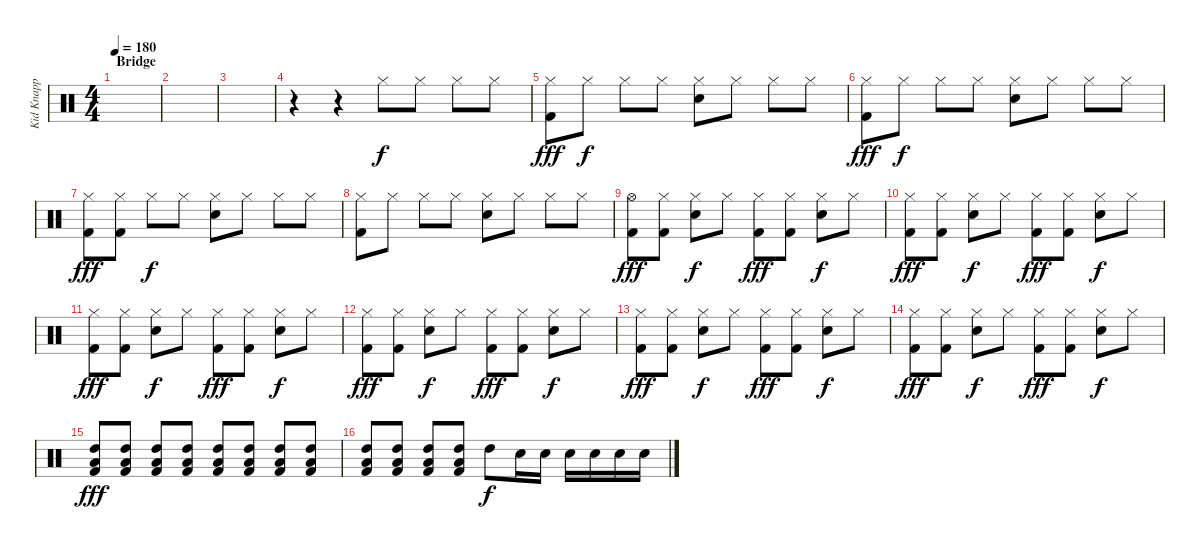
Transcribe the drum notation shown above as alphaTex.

\track ("Kid Knapp (Drums)" "Kid Knapp ") {instrument percussion}
\staff {score}
\articulation defaults
\ts (4 4)
\section ("" "Bridge")
\tempo 180
\clef neutral
\ks c
|
|
|
r.4 r.4 "Hi-Hat (closed)".8 "Hi-Hat (closed)".8 "Hi-Hat (closed)".8 "Hi-Hat (closed)".8 |
("Hi-Hat (closed)" "Kick (hit) 2").8{dy fff} "Hi-Hat (closed)".8{dy f} "Hi-Hat (closed)".8 "Hi-Hat (closed)".8 ("Hi-Hat (closed)" "Snare (hit) 2").8 "Hi-Hat (closed)".8 "Hi-Hat (closed)".8 "Hi-Hat (closed)".8 |
("Hi-Hat (closed)" "Kick (hit) 2").8{dy fff} "Hi-Hat (closed)".8{dy f} "Hi-Hat (closed)".8 "Hi-Hat (closed)".8 ("Hi-Hat (closed)" "Snare (hit) 2").8 "Hi-Hat (closed)".8 "Hi-Hat (closed)".8 "Hi-Hat (closed)".8 |
("Hi-Hat (closed)" "Kick (hit) 2").8{dy fff} ("Hi-Hat (closed)" "Kick (hit) 2").8 "Hi-Hat (closed)".8{dy f} "Hi-Hat (closed)".8 ("Hi-Hat (closed)" "Snare (hit) 2").8 "Hi-Hat (closed)".8 "Hi-Hat (closed)".8 "Hi-Hat (closed)".8 |
("Hi-Hat (closed)" "Kick (hit) 2").8 "Hi-Hat (closed)".8 "Hi-Hat (closed)".8 "Hi-Hat (closed)".8 ("Hi-Hat (closed)" "Snare (hit) 2").8 "Hi-Hat (closed)".8 "Hi-Hat (closed)".8 "Hi-Hat (closed)".8 |
("Hi-Hat (open)" "Kick (hit) 2").8{dy fff} ("Hi-Hat (closed)" "Kick (hit) 2").8 ("Hi-Hat (closed)" "Snare (hit) 2").8{dy f} "Hi-Hat (closed)".8 ("Hi-Hat (closed)" "Kick (hit) 2").8{dy fff} ("Hi-Hat (closed)" "Kick (hit) 2").8 ("Hi-Hat (closed)" "Snare (hit) 2").8{dy f} "Hi-Hat (closed)".8 |
("Hi-Hat (closed)" "Kick (hit) 2").8{dy fff} ("Hi-Hat (closed)" "Kick (hit) 2").8 ("Hi-Hat (closed)" "Snare (hit) 2").8{dy f} "Hi-Hat (closed)".8 ("Hi-Hat (closed)" "Kick (hit) 2").8{dy fff} ("Hi-Hat (closed)" "Kick (hit) 2").8 ("Hi-Hat (closed)" "Snare (hit) 2").8{dy f} "Hi-Hat (closed)".8 |
("Hi-Hat (closed)" "Kick (hit) 2").8{dy fff} ("Hi-Hat (closed)" "Kick (hit) 2").8 ("Hi-Hat (closed)" "Snare (hit) 2").8{dy f} "Hi-Hat (closed)".8 ("Hi-Hat (closed)" "Kick (hit) 2").8{dy fff} ("Hi-Hat (closed)" "Kick (hit) 2").8 ("Hi-Hat (closed)" "Snare (hit) 2").8{dy f} "Hi-Hat (closed)".8 |
("Hi-Hat (closed)" "Kick (hit) 2").8{dy fff} ("Hi-Hat (closed)" "Kick (hit) 2").8 ("Hi-Hat (closed)" "Snare (hit) 2").8{dy f} "Hi-Hat (closed)".8 ("Hi-Hat (closed)" "Kick (hit) 2").8{dy fff} ("Hi-Hat (closed)" "Kick (hit) 2").8 ("Hi-Hat (closed)" "Snare (hit) 2").8{dy f} "Hi-Hat (closed)".8 |
("Hi-Hat (closed)" "Kick (hit) 2").8{dy fff} ("Hi-Hat (closed)" "Kick (hit) 2").8 ("Hi-Hat (closed)" "Snare (hit) 2").8{dy f} "Hi-Hat (closed)".8 ("Hi-Hat (closed)" "Kick (hit) 2").8{dy fff} ("Hi-Hat (closed)" "Kick (hit) 2").8 ("Hi-Hat (closed)" "Snare (hit) 2").8{dy f} "Hi-Hat (closed)".8 |
("Hi-Hat (closed)" "Kick (hit) 2").8{dy fff} ("Hi-Hat (closed)" "Kick (hit) 2").8 ("Hi-Hat (closed)" "Snare (hit) 2").8{dy f} "Hi-Hat (closed)".8 ("Hi-Hat (closed)" "Kick (hit) 2").8{dy fff} ("Hi-Hat (closed)" "Kick (hit) 2").8 ("Hi-Hat (closed)" "Snare (hit) 2").8{dy f} "Hi-Hat (closed)".8 |
("High Tom (hit)" "Low Tom (hit)" "Kick (hit) 2").8{dy fff} ("High Tom (hit)" "Low Tom (hit)" "Kick (hit) 2").8 ("High Tom (hit)" "Low Tom (hit)" "Kick (hit) 2").8 ("High Tom (hit)" "Low Tom (hit)" "Kick (hit) 2").8 ("High Tom (hit)" "Low Tom (hit)" "Kick (hit) 2").8 ("High Tom (hit)" "Low Tom (hit)" "Kick (hit) 2").8 ("High Tom (hit)" "Low Tom (hit)" "Kick (hit) 2").8 ("High Tom (hit)" "Low Tom (hit)" "Kick (hit) 2").8 |
("High Tom (hit)" "Low Tom (hit)" "Kick (hit) 2").8 ("High Tom (hit)" "Low Tom (hit)" "Kick (hit) 2").8 ("High Tom (hit)" "Low Tom (hit)" "Kick (hit) 2").8 ("High Tom (hit)" "Low Tom (hit)" "Kick (hit) 2").8 "High Tom (hit)".8{dy f} "Snare (hit) 2".16 "Snare (hit) 2".16 "Snare (hit) 2".16 "Snare (hit) 2".16 "Snare (hit) 2".16 "Snare (hit) 2".16
